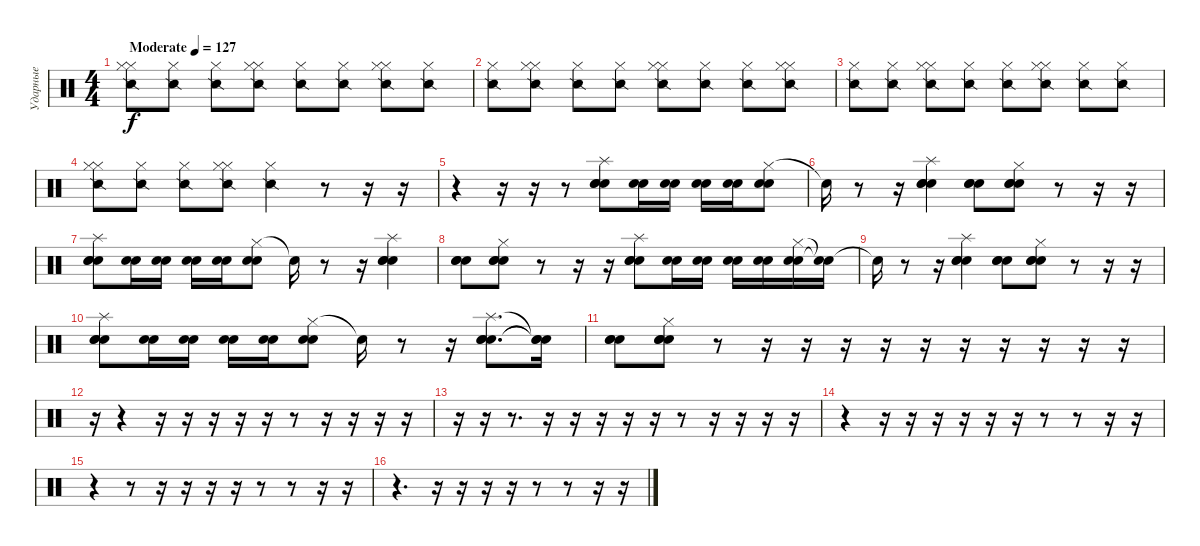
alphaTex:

\track ("Ударные" "Ударные") {instrument percussion}
\staff {score}
\articulation defaults
\ts (4 4)
\tempo (127 "Moderate")
\clef neutral
\ks c
("Snare (side stick) 2" "Hi-Hat (closed)" "Hi-Hat (closed)").8{dy f} ("Snare (side stick) 2" "Hi-Hat (closed)").8 ("Snare (side stick) 2" "Hi-Hat (closed)").8 ("Snare (side stick) 2" "Hi-Hat (closed)" "Hi-Hat (closed)").8 ("Snare (side stick) 2" "Hi-Hat (closed)").8 ("Snare (side stick) 2" "Hi-Hat (closed)").8 ("Snare (side stick) 2" "Hi-Hat (closed)" "Hi-Hat (closed)").8 ("Snare (side stick) 2" "Hi-Hat (closed)").8 |
("Snare (side stick) 2" "Hi-Hat (closed)").8 ("Snare (side stick) 2" "Hi-Hat (closed)" "Hi-Hat (closed)").8 ("Snare (side stick) 2" "Hi-Hat (closed)").8 ("Snare (side stick) 2" "Hi-Hat (closed)").8 ("Snare (side stick) 2" "Hi-Hat (closed)" "Hi-Hat (closed)").8 ("Snare (side stick) 2" "Hi-Hat (closed)").8 ("Snare (side stick) 2" "Hi-Hat (closed)").8 ("Snare (side stick) 2" "Hi-Hat (closed)" "Hi-Hat (closed)").8 |
("Snare (side stick) 2" "Hi-Hat (closed)").8 ("Snare (side stick) 2" "Hi-Hat (closed)").8 ("Snare (side stick) 2" "Hi-Hat (closed)" "Hi-Hat (closed)").8 ("Snare (side stick) 2" "Hi-Hat (closed)").8 ("Snare (side stick) 2" "Hi-Hat (closed)").8 ("Snare (side stick) 2" "Hi-Hat (closed)" "Hi-Hat (closed)").8 ("Snare (side stick) 2" "Hi-Hat (closed)").8 ("Snare (side stick) 2" "Hi-Hat (closed)").8 |
("Snare (side stick) 2" "Hi-Hat (closed)" "Hi-Hat (closed)").8 ("Snare (side stick) 2" "Hi-Hat (closed)").8 ("Snare (side stick) 2" "Hi-Hat (closed)").8 ("Snare (side stick) 2" "Hi-Hat (closed)" "Hi-Hat (closed)").8 ("Snare (side stick) 2" "Hi-Hat (closed)").4 r.8 r.16 r.16 |
r.4 r.16 r.16 r.8 ("Splash (hit)" "Electric Snare (hit)" "Electric Snare (hit)" "Snare (hit) 2").8 ("Electric Snare (hit)" "Electric Snare (hit)").16 ("Electric Snare (hit)" "Electric Snare (hit)").16 ("Electric Snare (hit)" "Electric Snare (hit)").16 ("Electric Snare (hit)" "Electric Snare (hit)").16 ("Hi-Hat (closed)" "Electric Snare (hit)" "Electric Snare (hit)").8 |
"Snare (hit)"{t}.16 r.8 r.16 ("Splash (hit)" "Electric Snare (hit)" "Electric Snare (hit)" "Snare (hit) 2").4 ("Electric Snare (hit)" "Electric Snare (hit)" "Electric Snare (hit)").8 ("Hi-Hat (closed)" "Electric Snare (hit)" "Electric Snare (hit)" "Snare (hit) 2").8 r.8 r.16 r.16 |
("Splash (hit)" "Electric Snare (hit)" "Electric Snare (hit)" "Snare (hit) 2").8 ("Electric Snare (hit)" "Electric Snare (hit)").16 ("Electric Snare (hit)" "Electric Snare (hit)").16 ("Electric Snare (hit)" "Electric Snare (hit)").16 ("Electric Snare (hit)" "Electric Snare (hit)").16 ("Hi-Hat (closed)" "Electric Snare (hit)" "Electric Snare (hit)").8 "Snare (hit)"{t}.16 r.8 r.16 ("Splash (hit)" "Electric Snare (hit)" "Electric Snare (hit)" "Snare (hit) 2").4 |
("Electric Snare (hit)" "Electric Snare (hit)" "Snare (hit) 2").8 ("Hi-Hat (closed)" "Electric Snare (hit)" "Electric Snare (hit)" "Snare (hit) 2").8 r.8 r.16 r.16 ("Splash (hit)" "Electric Snare (hit)" "Electric Snare (hit)" "Snare (hit) 2").8 ("Electric Snare (hit)" "Electric Snare (hit)").16 ("Electric Snare (hit)" "Electric Snare (hit)").16 ("Electric Snare (hit)" "Electric Snare (hit)").16 ("Electric Snare (hit)" "Electric Snare (hit)").16 ("Hi-Hat (closed)" "Electric Snare (hit)" "Electric Snare (hit)").16 ("Snare (hit)"{t} "Snare (hit)"{t}).16 |
"Snare (hit)"{t}.16 r.8 r.16 ("Splash (hit)" "Electric Snare (hit)" "Electric Snare (hit)" "Snare (hit) 2").4 ("Electric Snare (hit)" "Electric Snare (hit)" "Snare (hit) 2").8 ("Hi-Hat (closed)" "Electric Snare (hit)" "Electric Snare (hit)" "Snare (hit) 2").8 r.8 r.16 r.16 |
("Splash (hit)" "Electric Snare (hit)" "Electric Snare (hit)" "Snare (hit) 2").8 ("Electric Snare (hit)" "Electric Snare (hit)").16 ("Electric Snare (hit)" "Electric Snare (hit)").16 ("Electric Snare (hit)" "Electric Snare (hit)").16 ("Electric Snare (hit)" "Electric Snare (hit)").16 ("Hi-Hat (closed)" "Electric Snare (hit)" "Electric Snare (hit)").8 "Snare (hit)"{t}.16 r.8 r.16 ("Splash (hit)" "Electric Snare (hit)" "Electric Snare (hit)" "Snare (hit) 2").8{d} ("Snare (hit)"{t} "Snare (hit)"{t} "Snare (hit)"{t}).16 |
("Electric Snare (hit)" "Electric Snare (hit)" "Snare (hit) 2").8 ("Hi-Hat (closed)" "Electric Snare (hit)" "Electric Snare (hit)" "Snare (hit) 2").8 r.8 r.16 r.16 r.16 r.16 r.16 r.16 r.16 r.16 r.16 r.16 |
r.16 r.4 r.16 r.16 r.16 r.16 r.16 r.8 r.16 r.16 r.16 r.16 |
r.16 r.16 r.8{d} r.16 r.16 r.16 r.16 r.16 r.8 r.16 r.16 r.16 r.16 |
r.4 r.16 r.16 r.16 r.16 r.16 r.16 r.8 r.8 r.16 r.16 |
r.4 r.8 r.16 r.16 r.16 r.16 r.8 r.8 r.16 r.16 |
r.4{d} r.16 r.16 r.16 r.16 r.8 r.8 r.16 r.16
